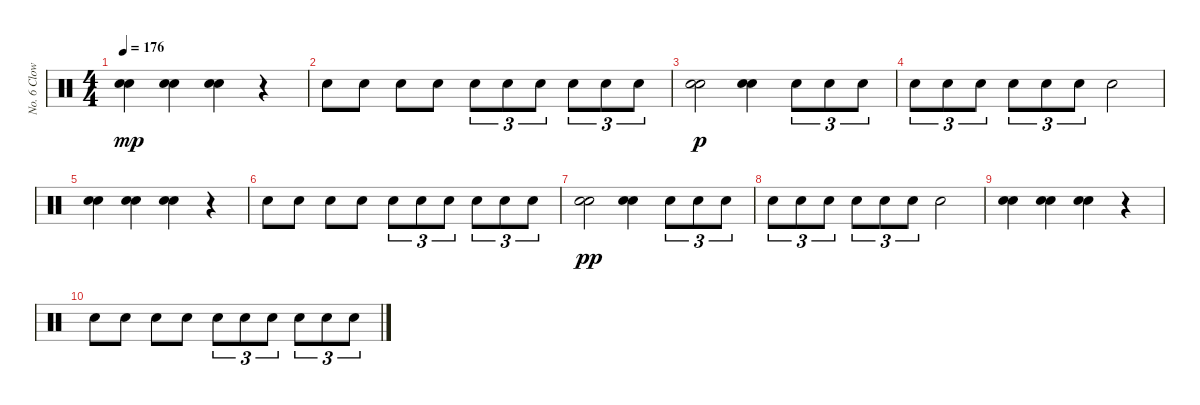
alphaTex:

\track ("No. 6 Clown" "No. 6 Clow") {instrument percussion}
\staff {score}
\articulation defaults
\ts (4 4)
\tempo 176
\clef neutral
\ks c
("Electric Snare (hit)" "Electric Snare (hit)").4{dy mp} ("Electric Snare (hit)" "Electric Snare (hit)").4 ("Electric Snare (hit)" "Electric Snare (hit)").4 r.4 |
"Electric Snare (hit)".8 "Electric Snare (hit)".8 "Electric Snare (hit)".8 "Electric Snare (hit)".8 "Electric Snare (hit)".8{tu (3 2)} "Electric Snare (hit)".8{tu (3 2)} "Electric Snare (hit)".8{tu (3 2)} "Electric Snare (hit)".8{tu (3 2)} "Electric Snare (hit)".8{tu (3 2)} "Electric Snare (hit)".8{tu (3 2)} |
("Electric Snare (hit)" "Electric Snare (hit)").2{dy p} ("Electric Snare (hit)" "Electric Snare (hit)").4 "Electric Snare (hit)".8{tu (3 2)} "Electric Snare (hit)".8{tu (3 2)} "Electric Snare (hit)".8{tu (3 2)} |
"Electric Snare (hit)".8{tu (3 2)} "Electric Snare (hit)".8{tu (3 2)} "Electric Snare (hit)".8{tu (3 2)} "Electric Snare (hit)".8{tu (3 2)} "Electric Snare (hit)".8{tu (3 2)} "Electric Snare (hit)".8{tu (3 2)} "Electric Snare (hit)".2 |
("Electric Snare (hit)" "Electric Snare (hit)").4 ("Electric Snare (hit)" "Electric Snare (hit)").4 ("Electric Snare (hit)" "Electric Snare (hit)").4 r.4 |
"Electric Snare (hit)".8 "Electric Snare (hit)".8 "Electric Snare (hit)".8 "Electric Snare (hit)".8 "Electric Snare (hit)".8{tu (3 2)} "Electric Snare (hit)".8{tu (3 2)} "Electric Snare (hit)".8{tu (3 2)} "Electric Snare (hit)".8{tu (3 2)} "Electric Snare (hit)".8{tu (3 2)} "Electric Snare (hit)".8{tu (3 2)} |
("Electric Snare (hit)" "Electric Snare (hit)").2{dy pp} ("Electric Snare (hit)" "Electric Snare (hit)").4 "Electric Snare (hit)".8{tu (3 2)} "Electric Snare (hit)".8{tu (3 2)} "Electric Snare (hit)".8{tu (3 2)} |
"Electric Snare (hit)".8{tu (3 2)} "Electric Snare (hit)".8{tu (3 2)} "Electric Snare (hit)".8{tu (3 2)} "Electric Snare (hit)".8{tu (3 2)} "Electric Snare (hit)".8{tu (3 2)} "Electric Snare (hit)".8{tu (3 2)} "Electric Snare (hit)".2 |
("Electric Snare (hit)" "Electric Snare (hit)").4 ("Electric Snare (hit)" "Electric Snare (hit)").4 ("Electric Snare (hit)" "Electric Snare (hit)").4 r.4 |
"Electric Snare (hit)".8 "Electric Snare (hit)".8 "Electric Snare (hit)".8 "Electric Snare (hit)".8 "Electric Snare (hit)".8{tu (3 2)} "Electric Snare (hit)".8{tu (3 2)} "Electric Snare (hit)".8{tu (3 2)} "Electric Snare (hit)".8{tu (3 2)} "Electric Snare (hit)".8{tu (3 2)} "Electric Snare (hit)".8{tu (3 2)}
